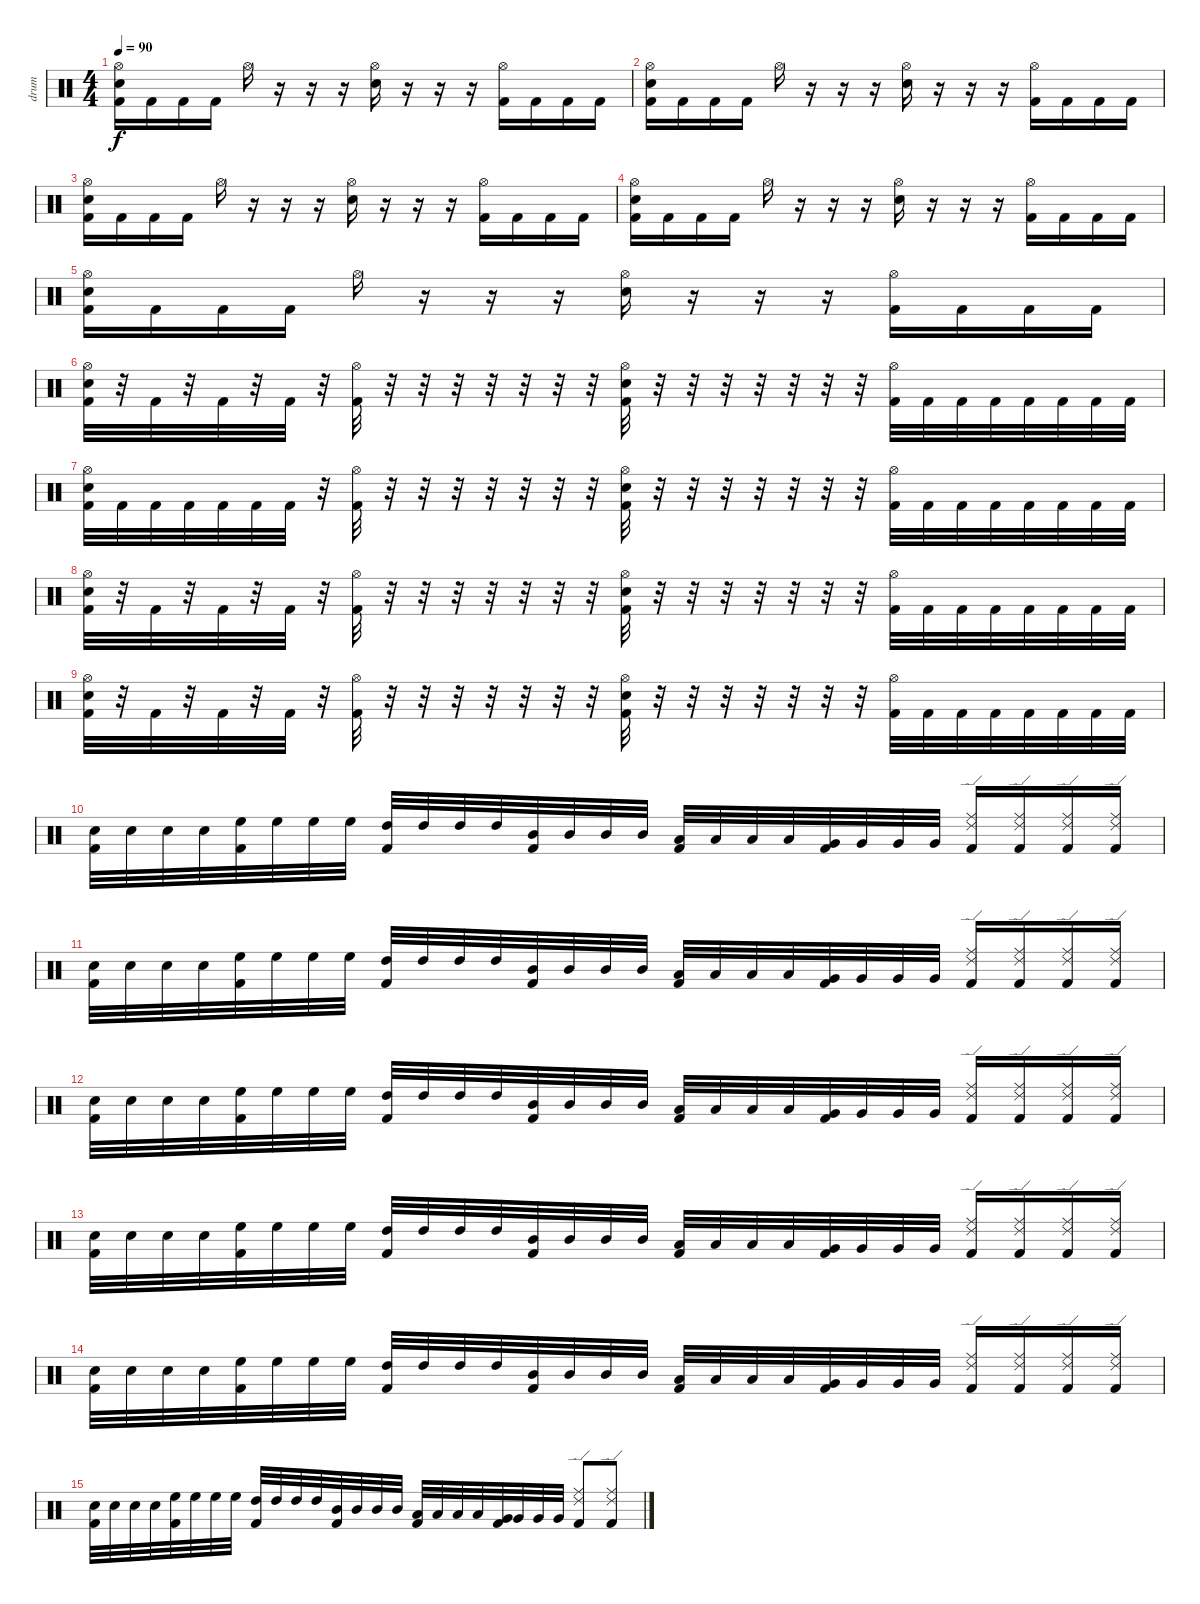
\track ("drum" "drum") {instrument percussion}
\staff {score}
\articulation defaults
\ts (4 4)
\tempo 90
\clef neutral
\ks c
("Hi-Hat (open)" "Electric Snare (hit)" "Kick (hit) 2").16{dy f} "Kick (hit) 2".16 "Kick (hit) 2".16 "Kick (hit) 2".16 "Hi-Hat (open)".16 r.16 r.16 r.16 ("Hi-Hat (open)" "Electric Snare (hit)").16 r.16 r.16 r.16 ("Hi-Hat (open)" "Kick (hit) 2").16 "Kick (hit) 2".16 "Kick (hit) 2".16 "Kick (hit) 2".16 |
("Hi-Hat (open)" "Electric Snare (hit)" "Kick (hit) 2").16 "Kick (hit) 2".16 "Kick (hit) 2".16 "Kick (hit) 2".16 "Hi-Hat (open)".16 r.16 r.16 r.16 ("Hi-Hat (open)" "Electric Snare (hit)").16 r.16 r.16 r.16 ("Hi-Hat (open)" "Kick (hit) 2").16 "Kick (hit) 2".16 "Kick (hit) 2".16 "Kick (hit) 2".16 |
("Hi-Hat (open)" "Electric Snare (hit)" "Kick (hit) 2").16 "Kick (hit) 2".16 "Kick (hit) 2".16 "Kick (hit) 2".16 "Hi-Hat (open)".16 r.16 r.16 r.16 ("Hi-Hat (open)" "Electric Snare (hit)").16 r.16 r.16 r.16 ("Hi-Hat (open)" "Kick (hit) 2").16 "Kick (hit) 2".16 "Kick (hit) 2".16 "Kick (hit) 2".16 |
("Hi-Hat (open)" "Electric Snare (hit)" "Kick (hit) 2").16 "Kick (hit) 2".16 "Kick (hit) 2".16 "Kick (hit) 2".16 "Hi-Hat (open)".16 r.16 r.16 r.16 ("Hi-Hat (open)" "Electric Snare (hit)").16 r.16 r.16 r.16 ("Hi-Hat (open)" "Kick (hit) 2").16 "Kick (hit) 2".16 "Kick (hit) 2".16 "Kick (hit) 2".16 |
("Hi-Hat (open)" "Electric Snare (hit)" "Kick (hit) 2").16 "Kick (hit) 2".16 "Kick (hit) 2".16 "Kick (hit) 2".16 "Hi-Hat (open)".16 r.16 r.16 r.16 ("Hi-Hat (open)" "Electric Snare (hit)").16 r.16 r.16 r.16 ("Hi-Hat (open)" "Kick (hit) 2").16 "Kick (hit) 2".16 "Kick (hit) 2".16 "Kick (hit) 2".16 |
("Hi-Hat (open)" "Electric Snare (hit)" "Kick (hit) 2").32 r.32 "Kick (hit) 2".32 r.32 "Kick (hit) 2".32 r.32 "Kick (hit) 2".32 r.32 ("Hi-Hat (open)" "Kick (hit) 2").32 r.32 r.32 r.32 r.32 r.32 r.32 r.32 ("Hi-Hat (open)" "Electric Snare (hit)" "Kick (hit) 2").32 r.32 r.32 r.32 r.32 r.32 r.32 r.32 ("Hi-Hat (open)" "Kick (hit) 2").32 "Kick (hit) 2".32 "Kick (hit) 2".32 "Kick (hit) 2".32 "Kick (hit) 2".32 "Kick (hit) 2".32 "Kick (hit) 2".32 "Kick (hit) 2".32 |
("Hi-Hat (open)" "Electric Snare (hit)" "Kick (hit) 2").32 "Kick (hit) 2".32 "Kick (hit) 2".32 "Kick (hit) 2".32 "Kick (hit) 2".32 "Kick (hit) 2".32 "Kick (hit) 2".32 r.32 ("Hi-Hat (open)" "Kick (hit) 2").32 r.32 r.32 r.32 r.32 r.32 r.32 r.32 ("Hi-Hat (open)" "Electric Snare (hit)" "Kick (hit) 2").32 r.32 r.32 r.32 r.32 r.32 r.32 r.32 ("Hi-Hat (open)" "Kick (hit) 2").32 "Kick (hit) 2".32 "Kick (hit) 2".32 "Kick (hit) 2".32 "Kick (hit) 2".32 "Kick (hit) 2".32 "Kick (hit) 2".32 "Kick (hit) 2".32 |
("Hi-Hat (open)" "Electric Snare (hit)" "Kick (hit) 2").32 r.32 "Kick (hit) 2".32 r.32 "Kick (hit) 2".32 r.32 "Kick (hit) 2".32 r.32 ("Hi-Hat (open)" "Kick (hit) 2").32 r.32 r.32 r.32 r.32 r.32 r.32 r.32 ("Hi-Hat (open)" "Electric Snare (hit)" "Kick (hit) 2").32 r.32 r.32 r.32 r.32 r.32 r.32 r.32 ("Hi-Hat (open)" "Kick (hit) 2").32 "Kick (hit) 2".32 "Kick (hit) 2".32 "Kick (hit) 2".32 "Kick (hit) 2".32 "Kick (hit) 2".32 "Kick (hit) 2".32 "Kick (hit) 2".32 |
("Hi-Hat (open)" "Electric Snare (hit)" "Kick (hit) 2").32 r.32 "Kick (hit) 2".32 r.32 "Kick (hit) 2".32 r.32 "Kick (hit) 2".32 r.32 ("Hi-Hat (open)" "Kick (hit) 2").32 r.32 r.32 r.32 r.32 r.32 r.32 r.32 ("Hi-Hat (open)" "Electric Snare (hit)" "Kick (hit) 2").32 r.32 r.32 r.32 r.32 r.32 r.32 r.32 ("Hi-Hat (open)" "Kick (hit) 2").32 "Kick (hit) 2".32 "Kick (hit) 2".32 "Kick (hit) 2".32 "Kick (hit) 2".32 "Kick (hit) 2".32 "Kick (hit) 2".32 "Kick (hit) 2".32 |
("Electric Snare (hit)" "Kick (hit) 2").32 "Electric Snare (hit)".32 "Electric Snare (hit)".32 "Electric Snare (hit)".32 ("High Floor Tom (hit)" "Kick (hit) 2").32 "High Floor Tom (hit)".32 "High Floor Tom (hit)".32 "High Floor Tom (hit)".32 ("High Tom (hit)" "Kick (hit) 2").32 "High Tom (hit)".32 "High Tom (hit)".32 "High Tom (hit)".32 ("Mid Tom (hit)" "Kick (hit) 2").32 "Mid Tom (hit)".32 "Mid Tom (hit)".32 "Mid Tom (hit)".32 ("Low Tom (hit)" "Kick (hit) 2").32 "Low Tom (hit)".32 "Low Tom (hit)".32 "Low Tom (hit)".32 ("Very Low Tom (hit)" "Kick (hit) 2").32 "Very Low Tom (hit)".32 "Very Low Tom (hit)".32 "Very Low Tom (hit)".32 ("Ride (middle)" "Ride (edge) 2" "Kick (hit) 2").16 ("Ride (middle)" "Ride (edge) 2" "Kick (hit) 2").16 ("Ride (middle)" "Ride (edge) 2" "Kick (hit) 2").16 ("Ride (middle)" "Ride (edge) 2" "Kick (hit) 2").16 |
("Electric Snare (hit)" "Kick (hit) 2").32 "Electric Snare (hit)".32 "Electric Snare (hit)".32 "Electric Snare (hit)".32 ("High Floor Tom (hit)" "Kick (hit) 2").32 "High Floor Tom (hit)".32 "High Floor Tom (hit)".32 "High Floor Tom (hit)".32 ("High Tom (hit)" "Kick (hit) 2").32 "High Tom (hit)".32 "High Tom (hit)".32 "High Tom (hit)".32 ("Mid Tom (hit)" "Kick (hit) 2").32 "Mid Tom (hit)".32 "Mid Tom (hit)".32 "Mid Tom (hit)".32 ("Low Tom (hit)" "Kick (hit) 2").32 "Low Tom (hit)".32 "Low Tom (hit)".32 "Low Tom (hit)".32 ("Very Low Tom (hit)" "Kick (hit) 2").32 "Very Low Tom (hit)".32 "Very Low Tom (hit)".32 "Very Low Tom (hit)".32 ("Ride (middle)" "Ride (edge) 2" "Kick (hit) 2").16 ("Ride (middle)" "Ride (edge) 2" "Kick (hit) 2").16 ("Ride (middle)" "Ride (edge) 2" "Kick (hit) 2").16 ("Ride (middle)" "Ride (edge) 2" "Kick (hit) 2").16 |
("Electric Snare (hit)" "Kick (hit) 2").32 "Electric Snare (hit)".32 "Electric Snare (hit)".32 "Electric Snare (hit)".32 ("High Floor Tom (hit)" "Kick (hit) 2").32 "High Floor Tom (hit)".32 "High Floor Tom (hit)".32 "High Floor Tom (hit)".32 ("High Tom (hit)" "Kick (hit) 2").32 "High Tom (hit)".32 "High Tom (hit)".32 "High Tom (hit)".32 ("Mid Tom (hit)" "Kick (hit) 2").32 "Mid Tom (hit)".32 "Mid Tom (hit)".32 "Mid Tom (hit)".32 ("Low Tom (hit)" "Kick (hit) 2").32 "Low Tom (hit)".32 "Low Tom (hit)".32 "Low Tom (hit)".32 ("Very Low Tom (hit)" "Kick (hit) 2").32 "Very Low Tom (hit)".32 "Very Low Tom (hit)".32 "Very Low Tom (hit)".32 ("Ride (middle)" "Ride (edge) 2" "Kick (hit) 2").16 ("Ride (middle)" "Ride (edge) 2" "Kick (hit) 2").16 ("Ride (middle)" "Ride (edge) 2" "Kick (hit) 2").16 ("Ride (middle)" "Ride (edge) 2" "Kick (hit) 2").16 |
("Electric Snare (hit)" "Kick (hit) 2").32 "Electric Snare (hit)".32 "Electric Snare (hit)".32 "Electric Snare (hit)".32 ("High Floor Tom (hit)" "Kick (hit) 2").32 "High Floor Tom (hit)".32 "High Floor Tom (hit)".32 "High Floor Tom (hit)".32 ("High Tom (hit)" "Kick (hit) 2").32 "High Tom (hit)".32 "High Tom (hit)".32 "High Tom (hit)".32 ("Mid Tom (hit)" "Kick (hit) 2").32 "Mid Tom (hit)".32 "Mid Tom (hit)".32 "Mid Tom (hit)".32 ("Low Tom (hit)" "Kick (hit) 2").32 "Low Tom (hit)".32 "Low Tom (hit)".32 "Low Tom (hit)".32 ("Very Low Tom (hit)" "Kick (hit) 2").32 "Very Low Tom (hit)".32 "Very Low Tom (hit)".32 "Very Low Tom (hit)".32 ("Ride (middle)" "Ride (edge) 2" "Kick (hit) 2").16 ("Ride (middle)" "Ride (edge) 2" "Kick (hit) 2").16 ("Ride (middle)" "Ride (edge) 2" "Kick (hit) 2").16 ("Ride (middle)" "Ride (edge) 2" "Kick (hit) 2").16 |
("Electric Snare (hit)" "Kick (hit) 2").32 "Electric Snare (hit)".32 "Electric Snare (hit)".32 "Electric Snare (hit)".32 ("High Floor Tom (hit)" "Kick (hit) 2").32 "High Floor Tom (hit)".32 "High Floor Tom (hit)".32 "High Floor Tom (hit)".32 ("High Tom (hit)" "Kick (hit) 2").32 "High Tom (hit)".32 "High Tom (hit)".32 "High Tom (hit)".32 ("Mid Tom (hit)" "Kick (hit) 2").32 "Mid Tom (hit)".32 "Mid Tom (hit)".32 "Mid Tom (hit)".32 ("Low Tom (hit)" "Kick (hit) 2").32 "Low Tom (hit)".32 "Low Tom (hit)".32 "Low Tom (hit)".32 ("Very Low Tom (hit)" "Kick (hit) 2").32 "Very Low Tom (hit)".32 "Very Low Tom (hit)".32 "Very Low Tom (hit)".32 ("Ride (middle)" "Ride (edge) 2" "Kick (hit) 2").16 ("Ride (middle)" "Ride (edge) 2" "Kick (hit) 2").16 ("Ride (middle)" "Ride (edge) 2" "Kick (hit) 2").16 ("Ride (middle)" "Ride (edge) 2" "Kick (hit) 2").16 |
("Electric Snare (hit)" "Kick (hit) 2").32 "Electric Snare (hit)".32 "Electric Snare (hit)".32 "Electric Snare (hit)".32 ("High Floor Tom (hit)" "Kick (hit) 2").32 "High Floor Tom (hit)".32 "High Floor Tom (hit)".32 "High Floor Tom (hit)".32 ("High Tom (hit)" "Kick (hit) 2").32 "High Tom (hit)".32 "High Tom (hit)".32 "High Tom (hit)".32 ("Mid Tom (hit)" "Kick (hit) 2").32 "Mid Tom (hit)".32 "Mid Tom (hit)".32 "Mid Tom (hit)".32 ("Low Tom (hit)" "Kick (hit) 2").32 "Low Tom (hit)".32 "Low Tom (hit)".32 "Low Tom (hit)".32 ("Very Low Tom (hit)" "Kick (hit) 2").32 "Very Low Tom (hit)".32 "Very Low Tom (hit)".32 "Very Low Tom (hit)".32 ("Ride (middle)" "Ride (edge) 2" "Kick (hit) 2").8 ("Ride (middle)" "Ride (edge) 2" "Kick (hit) 2").8
